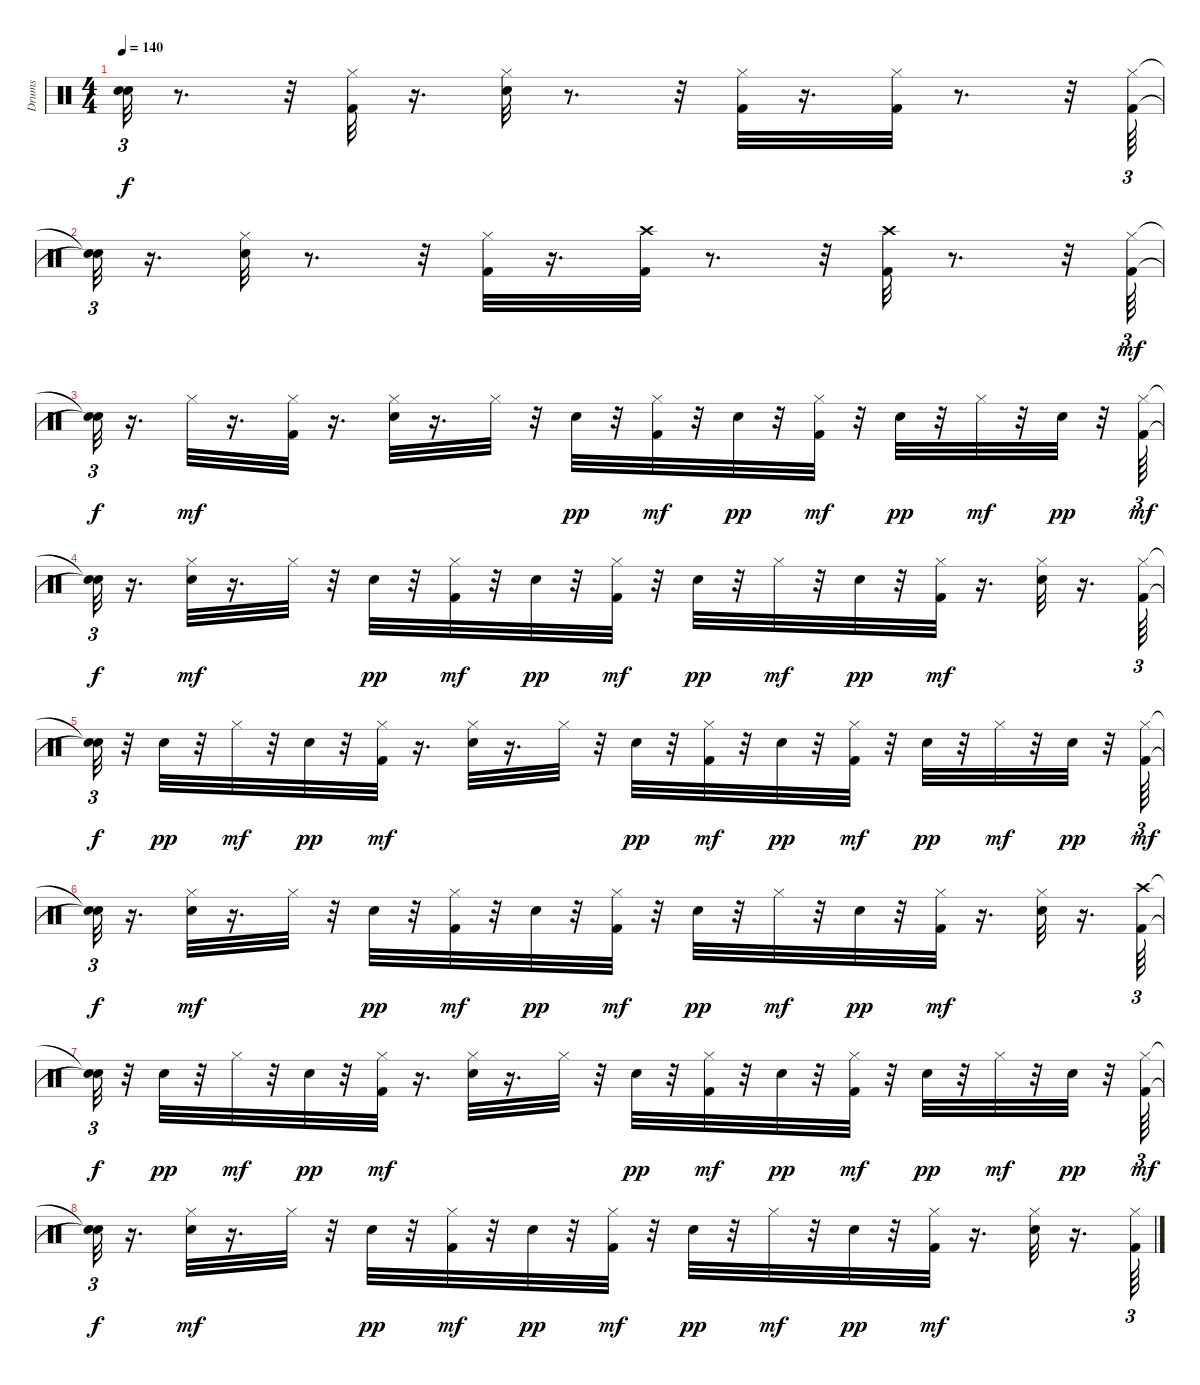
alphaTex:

\track ("Drums" "Drums") {instrument percussion}
\staff {score}
\articulation defaults
\ts (4 4)
\tempo 140
\clef neutral
\ks c
("Snare (hit)"{t} "Snare (hit)"{t}).32{tu (3 2) dy f} r.8{d} r.32 ("Hi-Hat (closed)" "Kick (hit) 2").32 r.16{d} ("Hi-Hat (closed)" "Snare (hit) 2").32 r.8{d} r.32 ("Hi-Hat (closed)" "Kick (hit) 2").32 r.16{d} ("Kick (hit) 2" "Hi-Hat (closed)").32 r.8{d} r.32 ("Hi-Hat (closed)" "Kick (hit) 2").64{tu (3 2)} |
("Snare (hit)"{t} "Snare (hit)"{t}).32{tu (3 2)} r.16{d} ("Hi-Hat (closed)" "Snare (hit) 2").32 r.8{d} r.32 ("Hi-Hat (closed)" "Kick (hit) 2").32 r.16{d} ("Crash high (hit)" "Kick (hit) 2").32 r.8{d} r.32 ("Crash high (hit)" "Kick (hit) 2").32 r.8{d} r.32 ("Hi-Hat (closed)" "Kick (hit) 2").64{tu (3 2) dy mf} |
("Snare (hit)"{t} "Snare (hit)"{t}).32{tu (3 2) dy f} r.16{d} "Hi-Hat (closed)".32{dy mf} r.16{d} ("Hi-Hat (closed)" "Kick (hit) 2").32 r.16{d} ("Hi-Hat (closed)" "Snare (hit) 2").32 r.16{d} "Hi-Hat (closed)".32 r.32 "Snare (hit) 2".32{dy pp} r.32 ("Hi-Hat (closed)" "Kick (hit) 2").32{dy mf} r.32 "Snare (hit) 2".32{dy pp} r.32 ("Hi-Hat (closed)" "Kick (hit) 2").32{dy mf} r.32 "Snare (hit) 2".32{dy pp} r.32 "Hi-Hat (closed)".32{dy mf} r.32 "Snare (hit) 2".32{dy pp} r.32 ("Hi-Hat (closed)" "Kick (hit) 2").64{tu (3 2) dy mf} |
("Snare (hit)"{t} "Snare (hit)"{t}).32{tu (3 2) dy f} r.16{d} ("Hi-Hat (closed)" "Snare (hit) 2").32{dy mf} r.16{d} "Hi-Hat (closed)".32 r.32 "Snare (hit) 2".32{dy pp} r.32 ("Hi-Hat (closed)" "Kick (hit) 2").32{dy mf} r.32 "Snare (hit) 2".32{dy pp} r.32 ("Hi-Hat (closed)" "Kick (hit) 2").32{dy mf} r.32 "Snare (hit) 2".32{dy pp} r.32 "Hi-Hat (closed)".32{dy mf} r.32 "Snare (hit) 2".32{dy pp} r.32 ("Hi-Hat (closed)" "Kick (hit) 2").32{dy mf} r.16{d} ("Hi-Hat (closed)" "Snare (hit) 2").32 r.16{d} ("Hi-Hat (closed)" "Kick (hit) 2").64{tu (3 2)} |
("Snare (hit)"{t} "Snare (hit)"{t}).32{tu (3 2) dy f} r.32 "Snare (hit) 2".32{dy pp} r.32 "Hi-Hat (closed)".32{dy mf} r.32 "Snare (hit) 2".32{dy pp} r.32 ("Hi-Hat (closed)" "Kick (hit) 2").32{dy mf} r.16{d} ("Hi-Hat (closed)" "Snare (hit) 2").32 r.16{d} "Hi-Hat (closed)".32 r.32 "Snare (hit) 2".32{dy pp} r.32 ("Hi-Hat (closed)" "Kick (hit) 2").32{dy mf} r.32 "Snare (hit) 2".32{dy pp} r.32 ("Hi-Hat (closed)" "Kick (hit) 2").32{dy mf} r.32 "Snare (hit) 2".32{dy pp} r.32 "Hi-Hat (closed)".32{dy mf} r.32 "Snare (hit) 2".32{dy pp} r.32 ("Hi-Hat (closed)" "Kick (hit) 2").64{tu (3 2) dy mf} |
("Snare (hit)"{t} "Snare (hit)"{t}).32{tu (3 2) dy f} r.16{d} ("Hi-Hat (closed)" "Snare (hit) 2").32{dy mf} r.16{d} "Hi-Hat (closed)".32 r.32 "Snare (hit) 2".32{dy pp} r.32 ("Hi-Hat (closed)" "Kick (hit) 2").32{dy mf} r.32 "Snare (hit) 2".32{dy pp} r.32 ("Hi-Hat (closed)" "Kick (hit) 2").32{dy mf} r.32 "Snare (hit) 2".32{dy pp} r.32 "Hi-Hat (closed)".32{dy mf} r.32 "Snare (hit) 2".32{dy pp} r.32 ("Hi-Hat (closed)" "Kick (hit) 2").32{dy mf} r.16{d} ("Hi-Hat (closed)" "Snare (hit) 2").32 r.16{d} ("Crash high (hit)" "Kick (hit) 2").64{tu (3 2)} |
("Snare (hit)"{t} "Snare (hit)"{t}).32{tu (3 2) dy f} r.32 "Snare (hit) 2".32{dy pp} r.32 "Hi-Hat (closed)".32{dy mf} r.32 "Snare (hit) 2".32{dy pp} r.32 ("Hi-Hat (closed)" "Kick (hit) 2").32{dy mf} r.16{d} ("Hi-Hat (closed)" "Snare (hit) 2").32 r.16{d} "Hi-Hat (closed)".32 r.32 "Snare (hit) 2".32{dy pp} r.32 ("Hi-Hat (closed)" "Kick (hit) 2").32{dy mf} r.32 "Snare (hit) 2".32{dy pp} r.32 ("Hi-Hat (closed)" "Kick (hit) 2").32{dy mf} r.32 "Snare (hit) 2".32{dy pp} r.32 "Hi-Hat (closed)".32{dy mf} r.32 "Snare (hit) 2".32{dy pp} r.32 ("Hi-Hat (closed)" "Kick (hit) 2").64{tu (3 2) dy mf} |
("Snare (hit)"{t} "Snare (hit)"{t}).32{tu (3 2) dy f} r.16{d} ("Hi-Hat (closed)" "Snare (hit) 2").32{dy mf} r.16{d} "Hi-Hat (closed)".32 r.32 "Snare (hit) 2".32{dy pp} r.32 ("Hi-Hat (closed)" "Kick (hit) 2").32{dy mf} r.32 "Snare (hit) 2".32{dy pp} r.32 ("Hi-Hat (closed)" "Kick (hit) 2").32{dy mf} r.32 "Snare (hit) 2".32{dy pp} r.32 "Hi-Hat (closed)".32{dy mf} r.32 "Snare (hit) 2".32{dy pp} r.32 ("Hi-Hat (closed)" "Kick (hit) 2").32{dy mf} r.16{d} ("Hi-Hat (closed)" "Snare (hit) 2").32 r.16{d} ("Hi-Hat (closed)" "Kick (hit) 2").64{tu (3 2)}
